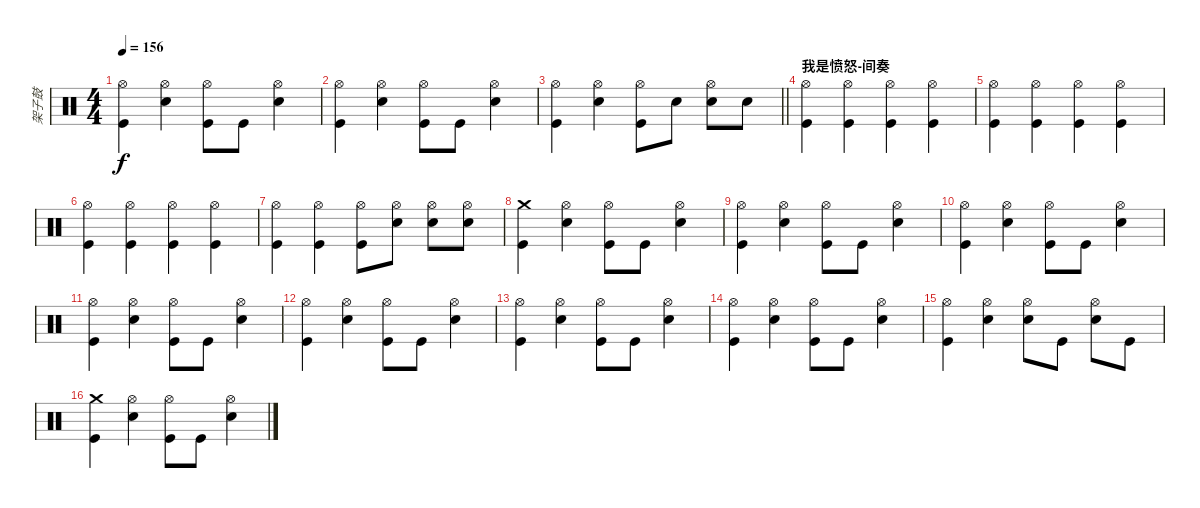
\track ("架子鼓" "架子鼓") {instrument percussion}
\staff {score}
\articulation defaults
\ts (4 4)
\tempo 156
\clef neutral
\ks c
("Hi-Hat (open)" "Kick (hit)").4{dy f} ("Hi-Hat (open)" "Electric Snare (hit)").4 ("Hi-Hat (open)" "Kick (hit)").8 "Kick (hit)".8 ("Hi-Hat (open)" "Electric Snare (hit)").4 |
("Hi-Hat (open)" "Kick (hit)").4 ("Hi-Hat (open)" "Electric Snare (hit)").4 ("Hi-Hat (open)" "Kick (hit)").8 "Kick (hit)".8 ("Hi-Hat (open)" "Electric Snare (hit)").4 |
\barLineRight lightlight
("Hi-Hat (open)" "Kick (hit)").4 ("Hi-Hat (open)" "Electric Snare (hit)").4 ("Hi-Hat (open)" "Kick (hit)").8 "Electric Snare (hit)".8 ("Hi-Hat (open)" "Electric Snare (hit)").8 "Electric Snare (hit)".8 |
\section ("" "我是愤怒-间奏")
("Hi-Hat (open)" "Kick (hit)").4 ("Hi-Hat (open)" "Kick (hit)").4 ("Hi-Hat (open)" "Kick (hit)").4 ("Hi-Hat (open)" "Kick (hit)").4 |
("Hi-Hat (open)" "Kick (hit)").4 ("Hi-Hat (open)" "Kick (hit)").4 ("Hi-Hat (open)" "Kick (hit)").4 ("Hi-Hat (open)" "Kick (hit)").4 |
("Hi-Hat (open)" "Kick (hit)").4 ("Hi-Hat (open)" "Kick (hit)").4 ("Hi-Hat (open)" "Kick (hit)").4 ("Hi-Hat (open)" "Kick (hit)").4 |
("Hi-Hat (open)" "Kick (hit)").4 ("Hi-Hat (open)" "Kick (hit)").4 ("Hi-Hat (open)" "Kick (hit)").8 ("Hi-Hat (open)" "Electric Snare (hit)").8 ("Hi-Hat (open)" "Electric Snare (hit)").8 ("Hi-Hat (open)" "Electric Snare (hit)").8 |
("Crash medium (hit)" "Kick (hit)").4 ("Hi-Hat (open)" "Electric Snare (hit)").4 ("Hi-Hat (open)" "Kick (hit)").8 "Kick (hit)".8 ("Hi-Hat (open)" "Electric Snare (hit)").4 |
("Hi-Hat (open)" "Kick (hit)").4 ("Hi-Hat (open)" "Electric Snare (hit)").4 ("Hi-Hat (open)" "Kick (hit)").8 "Kick (hit)".8 ("Hi-Hat (open)" "Electric Snare (hit)").4 |
("Hi-Hat (open)" "Kick (hit)").4 ("Hi-Hat (open)" "Electric Snare (hit)").4 ("Hi-Hat (open)" "Kick (hit)").8 "Kick (hit)".8 ("Hi-Hat (open)" "Electric Snare (hit)").4 |
("Hi-Hat (open)" "Kick (hit)").4 ("Hi-Hat (open)" "Electric Snare (hit)").4 ("Hi-Hat (open)" "Kick (hit)").8 "Kick (hit)".8 ("Hi-Hat (open)" "Electric Snare (hit)").4 |
("Hi-Hat (open)" "Kick (hit)").4 ("Hi-Hat (open)" "Electric Snare (hit)").4 ("Hi-Hat (open)" "Kick (hit)").8 "Kick (hit)".8 ("Hi-Hat (open)" "Electric Snare (hit)").4 |
("Hi-Hat (open)" "Kick (hit)").4 ("Hi-Hat (open)" "Electric Snare (hit)").4 ("Hi-Hat (open)" "Kick (hit)").8 "Kick (hit)".8 ("Hi-Hat (open)" "Electric Snare (hit)").4 |
("Hi-Hat (open)" "Kick (hit)").4 ("Hi-Hat (open)" "Electric Snare (hit)").4 ("Hi-Hat (open)" "Kick (hit)").8 "Kick (hit)".8 ("Hi-Hat (open)" "Electric Snare (hit)").4 |
("Hi-Hat (open)" "Kick (hit)").4 ("Hi-Hat (open)" "Electric Snare (hit)").4 ("Hi-Hat (open)" "Electric Snare (hit)").8 "Kick (hit)".8 ("Hi-Hat (open)" "Electric Snare (hit)").8 "Kick (hit)".8 |
("Crash medium (hit)" "Kick (hit)").4 ("Hi-Hat (open)" "Electric Snare (hit)").4 ("Hi-Hat (open)" "Kick (hit)").8 "Kick (hit)".8 ("Hi-Hat (open)" "Electric Snare (hit)").4
